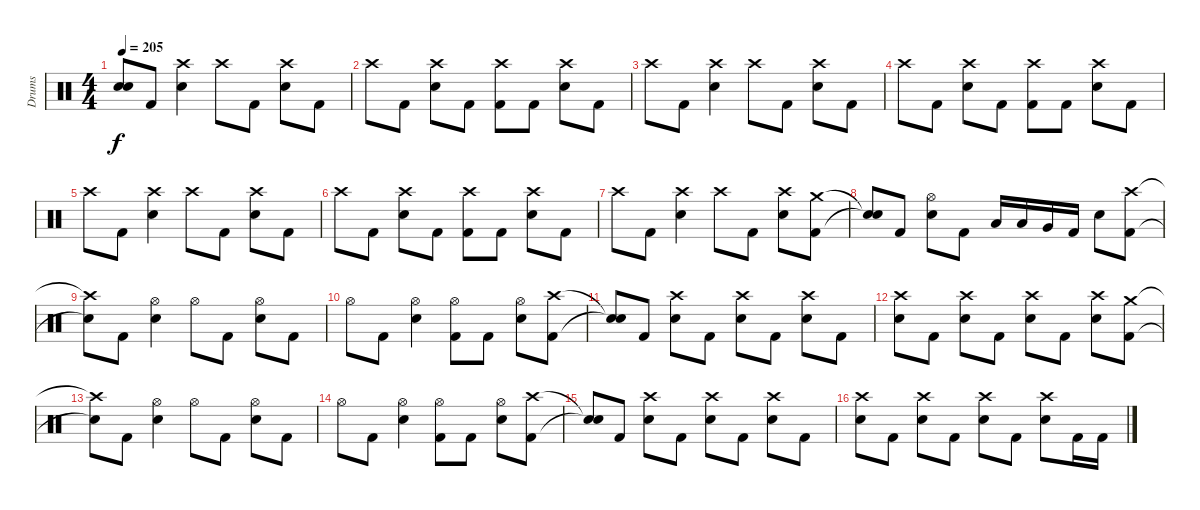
\track ("Drums" "Drums") {instrument percussion}
\staff {score}
\articulation defaults
\ts (4 4)
\tempo 205
\clef neutral
\ks c
("Snare (hit)"{t} "Snare (hit)"{t}).8{dy f} "Kick (hit) 2".8 ("Crash high (hit)" "Electric Snare (hit)").4 "Crash high (hit)".8 "Kick (hit) 2".8 ("Crash high (hit)" "Electric Snare (hit)").8 "Kick (hit) 2".8 |
"Crash high (hit)".8 "Kick (hit) 2".8 ("Crash high (hit)" "Electric Snare (hit)").8 "Kick (hit) 2".8 ("Crash high (hit)" "Kick (hit) 2").8 "Kick (hit) 2".8 ("Crash high (hit)" "Electric Snare (hit)").8 "Kick (hit) 2".8 |
"Crash high (hit)".8 "Kick (hit) 2".8 ("Crash high (hit)" "Electric Snare (hit)").4 "Crash high (hit)".8 "Kick (hit) 2".8 ("Crash high (hit)" "Electric Snare (hit)").8 "Kick (hit) 2".8 |
"Crash high (hit)".8 "Kick (hit) 2".8 ("Crash high (hit)" "Electric Snare (hit)").8 "Kick (hit) 2".8 ("Crash high (hit)" "Kick (hit) 2").8 "Kick (hit) 2".8 ("Crash high (hit)" "Electric Snare (hit)").8 "Kick (hit) 2".8 |
"Crash high (hit)".8 "Kick (hit) 2".8 ("Crash high (hit)" "Electric Snare (hit)").4 "Crash high (hit)".8 "Kick (hit) 2".8 ("Crash high (hit)" "Electric Snare (hit)").8 "Kick (hit) 2".8 |
"Crash high (hit)".8 "Kick (hit) 2".8 ("Crash high (hit)" "Electric Snare (hit)").8 "Kick (hit) 2".8 ("Crash high (hit)" "Kick (hit) 2").8 "Kick (hit) 2".8 ("Crash high (hit)" "Electric Snare (hit)").8 "Kick (hit) 2".8 |
"Crash high (hit)".8 "Kick (hit) 2".8 ("Crash high (hit)" "Electric Snare (hit)").4 "Crash high (hit)".8 "Kick (hit) 2".8 ("Crash high (hit)" "Electric Snare (hit)").8 ("Crash medium (hit)" "Kick (hit) 2").8 |
("Snare (hit)"{t} "Snare (hit)"{t}).8 "Kick (hit) 2".8 ("Hi-Hat (open)" "Electric Snare (hit)").8 "Kick (hit) 2".8 "Low Tom (hit)".16 "Low Tom (hit)".16 "Very Low Tom (hit)".16 "Kick (hit) 2".16 "Electric Snare (hit)".8 ("Crash high (hit)" "Kick (hit) 2").8 |
("Crash high (hit)"{t} "Snare (hit)"{t}).8 "Kick (hit) 2".8 ("Hi-Hat (open)" "Electric Snare (hit)").4 "Hi-Hat (open)".8 "Kick (hit) 2".8 ("Hi-Hat (open)" "Electric Snare (hit)").8 "Kick (hit) 2".8 |
"Hi-Hat (open)".8 "Kick (hit) 2".8 ("Hi-Hat (open)" "Electric Snare (hit)").4 ("Hi-Hat (open)" "Kick (hit) 2").8 "Kick (hit) 2".8 ("Hi-Hat (open)" "Electric Snare (hit)").8 ("Crash high (hit)" "Kick (hit) 2").8 |
("Snare (hit)"{t} "Snare (hit)"{t}).8 "Kick (hit) 2".8 ("Crash high (hit)" "Electric Snare (hit)").8 "Kick (hit) 2".8 ("Crash high (hit)" "Electric Snare (hit)").8 "Kick (hit) 2".8 ("Crash high (hit)" "Electric Snare (hit)").8 "Kick (hit) 2".8 |
("Crash high (hit)" "Electric Snare (hit)").8 "Kick (hit) 2".8 ("Crash high (hit)" "Electric Snare (hit)").8 "Kick (hit) 2".8 ("Crash high (hit)" "Electric Snare (hit)").8 "Kick (hit) 2".8 ("Crash high (hit)" "Electric Snare (hit)").8 ("Crash medium (hit)" "Kick (hit) 2").8 |
("Crash high (hit)"{t} "Snare (hit)"{t}).8 "Kick (hit) 2".8 ("Hi-Hat (open)" "Electric Snare (hit)").4 "Hi-Hat (open)".8 "Kick (hit) 2".8 ("Hi-Hat (open)" "Electric Snare (hit)").8 "Kick (hit) 2".8 |
"Hi-Hat (open)".8 "Kick (hit) 2".8 ("Hi-Hat (open)" "Electric Snare (hit)").4 ("Hi-Hat (open)" "Kick (hit) 2").8 "Kick (hit) 2".8 ("Hi-Hat (open)" "Electric Snare (hit)").8 ("Crash high (hit)" "Kick (hit) 2").8 |
("Snare (hit)"{t} "Snare (hit)"{t}).8 "Kick (hit) 2".8 ("Crash high (hit)" "Electric Snare (hit)").8 "Kick (hit) 2".8 ("Crash high (hit)" "Electric Snare (hit)").8 "Kick (hit) 2".8 ("Crash high (hit)" "Electric Snare (hit)").8 "Kick (hit) 2".8 |
("Crash high (hit)" "Electric Snare (hit)").8 "Kick (hit) 2".8 ("Crash high (hit)" "Electric Snare (hit)").8 "Kick (hit) 2".8 ("Crash high (hit)" "Electric Snare (hit)").8 "Kick (hit) 2".8 ("Crash high (hit)" "Electric Snare (hit)").8 "Kick (hit) 2".16 "Kick (hit) 2".16
